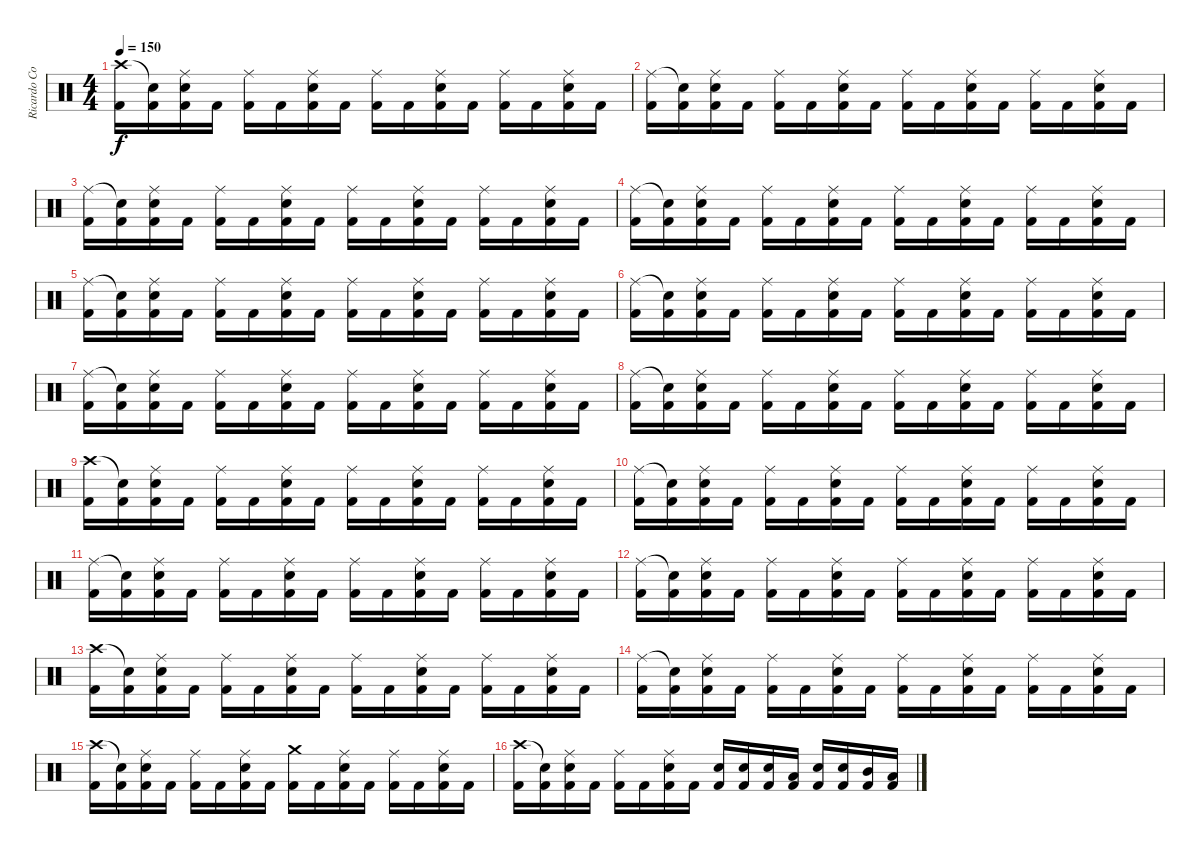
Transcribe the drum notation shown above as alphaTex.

\track ("Ricardo Confessori" "Ricardo Co") {instrument percussion}
\staff {score}
\articulation defaults
\ts (4 4)
\tempo 150
\clef neutral
\ks c
("Crash high (hit)" "Kick (hit) 2").16{dy f} ("Snare (hit)"{t} "Kick (hit) 2").16 ("Ride (middle)" "Electric Snare (hit)" "Kick (hit) 2").16 "Kick (hit) 2".16 ("Ride (middle)" "Kick (hit) 2").16 "Kick (hit) 2".16 ("Ride (middle)" "Electric Snare (hit)" "Kick (hit) 2").16 "Kick (hit) 2".16 ("Ride (middle)" "Kick (hit) 2").16 "Kick (hit) 2".16 ("Ride (middle)" "Electric Snare (hit)" "Kick (hit) 2").16 "Kick (hit) 2".16 ("Ride (middle)" "Kick (hit) 2").16 "Kick (hit) 2".16 ("Ride (middle)" "Electric Snare (hit)" "Kick (hit) 2").16 "Kick (hit) 2".16 |
("Ride (middle)" "Kick (hit) 2").16 ("Snare (hit)"{t} "Kick (hit) 2").16 ("Ride (middle)" "Electric Snare (hit)" "Kick (hit) 2").16 "Kick (hit) 2".16 ("Ride (middle)" "Kick (hit) 2").16 "Kick (hit) 2".16 ("Ride (middle)" "Electric Snare (hit)" "Kick (hit) 2").16 "Kick (hit) 2".16 ("Ride (middle)" "Kick (hit) 2").16 "Kick (hit) 2".16 ("Ride (middle)" "Electric Snare (hit)" "Kick (hit) 2").16 "Kick (hit) 2".16 ("Ride (middle)" "Kick (hit) 2").16 "Kick (hit) 2".16 ("Ride (middle)" "Electric Snare (hit)" "Kick (hit) 2").16 "Kick (hit) 2".16 |
("Ride (middle)" "Kick (hit) 2").16 ("Snare (hit)"{t} "Kick (hit) 2").16 ("Ride (middle)" "Electric Snare (hit)" "Kick (hit) 2").16 "Kick (hit) 2".16 ("Ride (middle)" "Kick (hit) 2").16 "Kick (hit) 2".16 ("Ride (middle)" "Electric Snare (hit)" "Kick (hit) 2").16 "Kick (hit) 2".16 ("Ride (middle)" "Kick (hit) 2").16 "Kick (hit) 2".16 ("Ride (middle)" "Electric Snare (hit)" "Kick (hit) 2").16 "Kick (hit) 2".16 ("Ride (middle)" "Kick (hit) 2").16 "Kick (hit) 2".16 ("Ride (middle)" "Electric Snare (hit)" "Kick (hit) 2").16 "Kick (hit) 2".16 |
("Ride (middle)" "Kick (hit) 2").16 ("Snare (hit)"{t} "Kick (hit) 2").16 ("Ride (middle)" "Electric Snare (hit)" "Kick (hit) 2").16 "Kick (hit) 2".16 ("Ride (middle)" "Kick (hit) 2").16 "Kick (hit) 2".16 ("Ride (middle)" "Electric Snare (hit)" "Kick (hit) 2").16 "Kick (hit) 2".16 ("Ride (middle)" "Kick (hit) 2").16 "Kick (hit) 2".16 ("Ride (middle)" "Electric Snare (hit)" "Kick (hit) 2").16 "Kick (hit) 2".16 ("Ride (middle)" "Kick (hit) 2").16 "Kick (hit) 2".16 ("Ride (middle)" "Electric Snare (hit)" "Kick (hit) 2").16 "Kick (hit) 2".16 |
("Ride (middle)" "Kick (hit) 2").16 ("Snare (hit)"{t} "Kick (hit) 2").16 ("Ride (middle)" "Electric Snare (hit)" "Kick (hit) 2").16 "Kick (hit) 2".16 ("Ride (middle)" "Kick (hit) 2").16 "Kick (hit) 2".16 ("Ride (middle)" "Electric Snare (hit)" "Kick (hit) 2").16 "Kick (hit) 2".16 ("Ride (middle)" "Kick (hit) 2").16 "Kick (hit) 2".16 ("Ride (middle)" "Electric Snare (hit)" "Kick (hit) 2").16 "Kick (hit) 2".16 ("Ride (middle)" "Kick (hit) 2").16 "Kick (hit) 2".16 ("Ride (middle)" "Electric Snare (hit)" "Kick (hit) 2").16 "Kick (hit) 2".16 |
("Ride (middle)" "Kick (hit) 2").16 ("Snare (hit)"{t} "Kick (hit) 2").16 ("Ride (middle)" "Electric Snare (hit)" "Kick (hit) 2").16 "Kick (hit) 2".16 ("Ride (middle)" "Kick (hit) 2").16 "Kick (hit) 2".16 ("Ride (middle)" "Electric Snare (hit)" "Kick (hit) 2").16 "Kick (hit) 2".16 ("Ride (middle)" "Kick (hit) 2").16 "Kick (hit) 2".16 ("Ride (middle)" "Electric Snare (hit)" "Kick (hit) 2").16 "Kick (hit) 2".16 ("Ride (middle)" "Kick (hit) 2").16 "Kick (hit) 2".16 ("Ride (middle)" "Electric Snare (hit)" "Kick (hit) 2").16 "Kick (hit) 2".16 |
("Ride (middle)" "Kick (hit) 2").16 ("Snare (hit)"{t} "Kick (hit) 2").16 ("Ride (middle)" "Electric Snare (hit)" "Kick (hit) 2").16 "Kick (hit) 2".16 ("Ride (middle)" "Kick (hit) 2").16 "Kick (hit) 2".16 ("Ride (middle)" "Electric Snare (hit)" "Kick (hit) 2").16 "Kick (hit) 2".16 ("Ride (middle)" "Kick (hit) 2").16 "Kick (hit) 2".16 ("Ride (middle)" "Electric Snare (hit)" "Kick (hit) 2").16 "Kick (hit) 2".16 ("Ride (middle)" "Kick (hit) 2").16 "Kick (hit) 2".16 ("Ride (middle)" "Electric Snare (hit)" "Kick (hit) 2").16 "Kick (hit) 2".16 |
("Ride (middle)" "Kick (hit) 2").16 ("Snare (hit)"{t} "Kick (hit) 2").16 ("Ride (middle)" "Electric Snare (hit)" "Kick (hit) 2").16 "Kick (hit) 2".16 ("Ride (middle)" "Kick (hit) 2").16 "Kick (hit) 2".16 ("Ride (middle)" "Electric Snare (hit)" "Kick (hit) 2").16 "Kick (hit) 2".16 ("Ride (middle)" "Kick (hit) 2").16 "Kick (hit) 2".16 ("Ride (middle)" "Electric Snare (hit)" "Kick (hit) 2").16 "Kick (hit) 2".16 ("Ride (middle)" "Kick (hit) 2").16 "Kick (hit) 2".16 ("Ride (middle)" "Electric Snare (hit)" "Kick (hit) 2").16 "Kick (hit) 2".16 |
("Crash high (hit)" "Kick (hit) 2").16 ("Snare (hit)"{t} "Kick (hit) 2").16 ("Ride (middle)" "Electric Snare (hit)" "Kick (hit) 2").16 "Kick (hit) 2".16 ("Ride (middle)" "Kick (hit) 2").16 "Kick (hit) 2".16 ("Ride (middle)" "Electric Snare (hit)" "Kick (hit) 2").16 "Kick (hit) 2".16 ("Ride (middle)" "Kick (hit) 2").16 "Kick (hit) 2".16 ("Ride (middle)" "Electric Snare (hit)" "Kick (hit) 2").16 "Kick (hit) 2".16 ("Ride (middle)" "Kick (hit) 2").16 "Kick (hit) 2".16 ("Ride (middle)" "Electric Snare (hit)" "Kick (hit) 2").16 "Kick (hit) 2".16 |
("Ride (middle)" "Kick (hit) 2").16 ("Snare (hit)"{t} "Kick (hit) 2").16 ("Ride (middle)" "Electric Snare (hit)" "Kick (hit) 2").16 "Kick (hit) 2".16 ("Ride (middle)" "Kick (hit) 2").16 "Kick (hit) 2".16 ("Ride (middle)" "Electric Snare (hit)" "Kick (hit) 2").16 "Kick (hit) 2".16 ("Ride (middle)" "Kick (hit) 2").16 "Kick (hit) 2".16 ("Ride (middle)" "Electric Snare (hit)" "Kick (hit) 2").16 "Kick (hit) 2".16 ("Ride (middle)" "Kick (hit) 2").16 "Kick (hit) 2".16 ("Ride (middle)" "Electric Snare (hit)" "Kick (hit) 2").16 "Kick (hit) 2".16 |
("Ride (middle)" "Kick (hit) 2").16 ("Snare (hit)"{t} "Kick (hit) 2").16 ("Ride (middle)" "Electric Snare (hit)" "Kick (hit) 2").16 "Kick (hit) 2".16 ("Ride (middle)" "Kick (hit) 2").16 "Kick (hit) 2".16 ("Ride (middle)" "Electric Snare (hit)" "Kick (hit) 2").16 "Kick (hit) 2".16 ("Ride (middle)" "Kick (hit) 2").16 "Kick (hit) 2".16 ("Ride (middle)" "Electric Snare (hit)" "Kick (hit) 2").16 "Kick (hit) 2".16 ("Ride (middle)" "Kick (hit) 2").16 "Kick (hit) 2".16 ("Ride (middle)" "Electric Snare (hit)" "Kick (hit) 2").16 "Kick (hit) 2".16 |
("Ride (middle)" "Kick (hit) 2").16 ("Snare (hit)"{t} "Kick (hit) 2").16 ("Ride (middle)" "Electric Snare (hit)" "Kick (hit) 2").16 "Kick (hit) 2".16 ("Ride (middle)" "Kick (hit) 2").16 "Kick (hit) 2".16 ("Ride (middle)" "Electric Snare (hit)" "Kick (hit) 2").16 "Kick (hit) 2".16 ("Ride (middle)" "Kick (hit) 2").16 "Kick (hit) 2".16 ("Ride (middle)" "Electric Snare (hit)" "Kick (hit) 2").16 "Kick (hit) 2".16 ("Ride (middle)" "Kick (hit) 2").16 "Kick (hit) 2".16 ("Ride (middle)" "Electric Snare (hit)" "Kick (hit) 2").16 "Kick (hit) 2".16 |
("Crash high (hit)" "Kick (hit) 2").16 ("Snare (hit)"{t} "Kick (hit) 2").16 ("Ride (middle)" "Electric Snare (hit)" "Kick (hit) 2").16 "Kick (hit) 2".16 ("Ride (middle)" "Kick (hit) 2").16 "Kick (hit) 2".16 ("Ride (middle)" "Electric Snare (hit)" "Kick (hit) 2").16 "Kick (hit) 2".16 ("Ride (middle)" "Kick (hit) 2").16 "Kick (hit) 2".16 ("Ride (middle)" "Electric Snare (hit)" "Kick (hit) 2").16 "Kick (hit) 2".16 ("Ride (middle)" "Kick (hit) 2").16 "Kick (hit) 2".16 ("Ride (middle)" "Electric Snare (hit)" "Kick (hit) 2").16 "Kick (hit) 2".16 |
("Ride (middle)" "Kick (hit) 2").16 ("Snare (hit)"{t} "Kick (hit) 2").16 ("Ride (middle)" "Electric Snare (hit)" "Kick (hit) 2").16 "Kick (hit) 2".16 ("Ride (middle)" "Kick (hit) 2").16 "Kick (hit) 2".16 ("Ride (middle)" "Electric Snare (hit)" "Kick (hit) 2").16 "Kick (hit) 2".16 ("Ride (middle)" "Kick (hit) 2").16 "Kick (hit) 2".16 ("Ride (middle)" "Electric Snare (hit)" "Kick (hit) 2").16 "Kick (hit) 2".16 ("Ride (middle)" "Kick (hit) 2").16 "Kick (hit) 2".16 ("Ride (middle)" "Electric Snare (hit)" "Kick (hit) 2").16 "Kick (hit) 2".16 |
("Crash high (hit)" "Kick (hit) 2").16 ("Snare (hit)"{t} "Kick (hit) 2").16 ("Ride (middle)" "Electric Snare (hit)" "Kick (hit) 2").16 "Kick (hit) 2".16 ("Ride (middle)" "Kick (hit) 2").16 "Kick (hit) 2".16 ("Ride (middle)" "Electric Snare (hit)" "Kick (hit) 2").16 "Kick (hit) 2".16 ("Crash medium (hit)" "Kick (hit) 2").16 "Kick (hit) 2".16 ("Ride (middle)" "Electric Snare (hit)" "Kick (hit) 2").16 "Kick (hit) 2".16 ("Ride (middle)" "Kick (hit) 2").16 "Kick (hit) 2".16 ("Ride (middle)" "Electric Snare (hit)" "Kick (hit) 2").16 "Kick (hit) 2".16 |
("Crash high (hit)" "Kick (hit) 2").16 ("Snare (hit)"{t} "Kick (hit) 2").16 ("Ride (middle)" "Electric Snare (hit)" "Kick (hit) 2").16 "Kick (hit) 2".16 ("Ride (middle)" "Kick (hit) 2").16 "Kick (hit) 2".16 ("Ride (middle)" "Electric Snare (hit)" "Kick (hit) 2").16 "Kick (hit) 2".16 ("Electric Snare (hit)" "Kick (hit) 2").16 ("Electric Snare (hit)" "Kick (hit) 2").16 ("Electric Snare (hit)" "Kick (hit) 2").16 ("Low Tom (hit)" "Kick (hit) 2").16 ("Electric Snare (hit)" "Kick (hit) 2").16 ("Electric Snare (hit)" "Kick (hit) 2").16 ("Mid Tom (hit)" "Kick (hit) 2").16 ("Low Tom (hit)" "Kick (hit) 2").16
